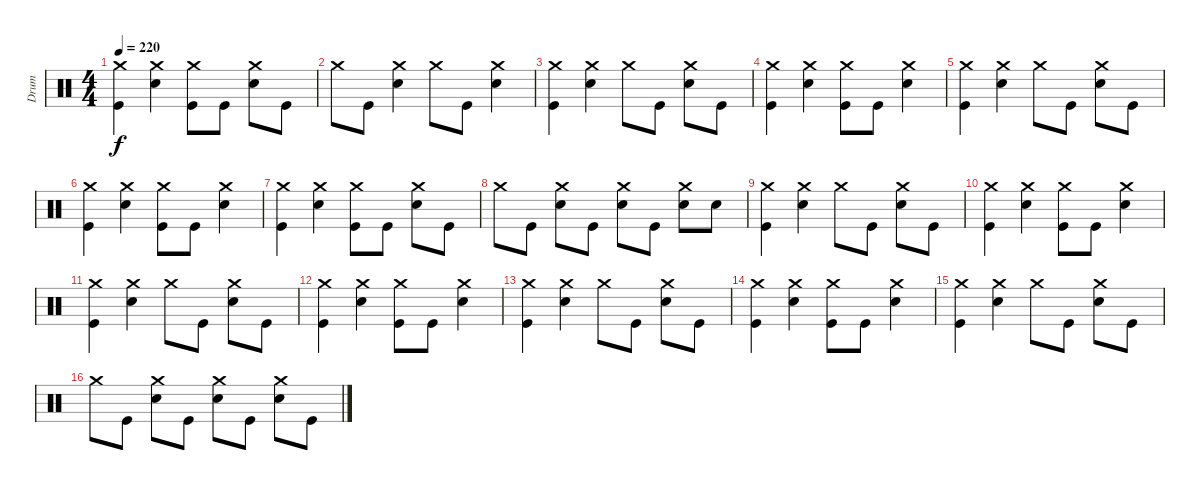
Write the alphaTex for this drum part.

\track ("Drum" "Drum") {instrument percussion}
\staff {score}
\articulation defaults
\ts (4 4)
\tempo 220
\clef neutral
\ks c
("Crash medium (hit)" "Kick (hit)").4{dy f} ("Crash medium (hit)" "Snare (hit) 2").4 ("Crash medium (hit)" "Kick (hit)").8 "Kick (hit)".8 ("Crash medium (hit)" "Snare (hit) 2").8 "Kick (hit)".8 |
"Crash medium (hit)".8 "Kick (hit)".8 ("Crash medium (hit)" "Snare (hit) 2").4 "Crash medium (hit)".8 "Kick (hit)".8 ("Crash medium (hit)" "Snare (hit) 2").4 |
("Crash medium (hit)" "Kick (hit)").4 ("Crash medium (hit)" "Snare (hit) 2").4 "Crash medium (hit)".8 "Kick (hit)".8 ("Crash medium (hit)" "Snare (hit) 2").8 "Kick (hit)".8 |
("Crash medium (hit)" "Kick (hit)").4 ("Crash medium (hit)" "Snare (hit) 2").4 ("Crash medium (hit)" "Kick (hit)").8 "Kick (hit)".8 ("Crash medium (hit)" "Snare (hit) 2").4 |
("Crash medium (hit)" "Kick (hit)").4 ("Crash medium (hit)" "Snare (hit) 2").4 "Crash medium (hit)".8 "Kick (hit)".8 ("Crash medium (hit)" "Snare (hit) 2").8 "Kick (hit)".8 |
("Crash medium (hit)" "Kick (hit)").4 ("Crash medium (hit)" "Snare (hit) 2").4 ("Crash medium (hit)" "Kick (hit)").8 "Kick (hit)".8 ("Crash medium (hit)" "Snare (hit) 2").4 |
("Crash medium (hit)" "Kick (hit)").4 ("Crash medium (hit)" "Snare (hit) 2").4 ("Crash medium (hit)" "Kick (hit)").8 "Kick (hit)".8 ("Crash medium (hit)" "Snare (hit) 2").8 "Kick (hit)".8 |
"Crash medium (hit)".8 "Kick (hit)".8 ("Crash medium (hit)" "Snare (hit) 2").8 "Kick (hit)".8 ("Crash medium (hit)" "Snare (hit) 2").8 "Kick (hit)".8 ("Crash medium (hit)" "Snare (hit) 2").8 "Snare (hit) 2".8 |
("Crash medium (hit)" "Kick (hit)").4 ("Crash medium (hit)" "Snare (hit) 2").4 "Crash medium (hit)".8 "Kick (hit)".8 ("Crash medium (hit)" "Snare (hit) 2").8 "Kick (hit)".8 |
("Crash medium (hit)" "Kick (hit)").4 ("Crash medium (hit)" "Snare (hit) 2").4 ("Crash medium (hit)" "Kick (hit)").8 "Kick (hit)".8 ("Crash medium (hit)" "Snare (hit) 2").4 |
("Crash medium (hit)" "Kick (hit)").4 ("Crash medium (hit)" "Snare (hit) 2").4 "Crash medium (hit)".8 "Kick (hit)".8 ("Crash medium (hit)" "Snare (hit) 2").8 "Kick (hit)".8 |
("Crash medium (hit)" "Kick (hit)").4 ("Crash medium (hit)" "Snare (hit) 2").4 ("Crash medium (hit)" "Kick (hit)").8 "Kick (hit)".8 ("Crash medium (hit)" "Snare (hit) 2").4 |
("Crash medium (hit)" "Kick (hit)").4 ("Crash medium (hit)" "Snare (hit) 2").4 "Crash medium (hit)".8 "Kick (hit)".8 ("Crash medium (hit)" "Snare (hit) 2").8 "Kick (hit)".8 |
("Crash medium (hit)" "Kick (hit)").4 ("Crash medium (hit)" "Snare (hit) 2").4 ("Crash medium (hit)" "Kick (hit)").8 "Kick (hit)".8 ("Crash medium (hit)" "Snare (hit) 2").4 |
("Crash medium (hit)" "Kick (hit)").4 ("Crash medium (hit)" "Snare (hit) 2").4 "Crash medium (hit)".8 "Kick (hit)".8 ("Crash medium (hit)" "Snare (hit) 2").8 "Kick (hit)".8 |
"Crash medium (hit)".8 "Kick (hit)".8 ("Crash medium (hit)" "Snare (hit) 2").8 "Kick (hit)".8 ("Crash medium (hit)" "Snare (hit) 2").8 "Kick (hit)".8 ("Crash medium (hit)" "Snare (hit) 2").8 "Kick (hit)".8
